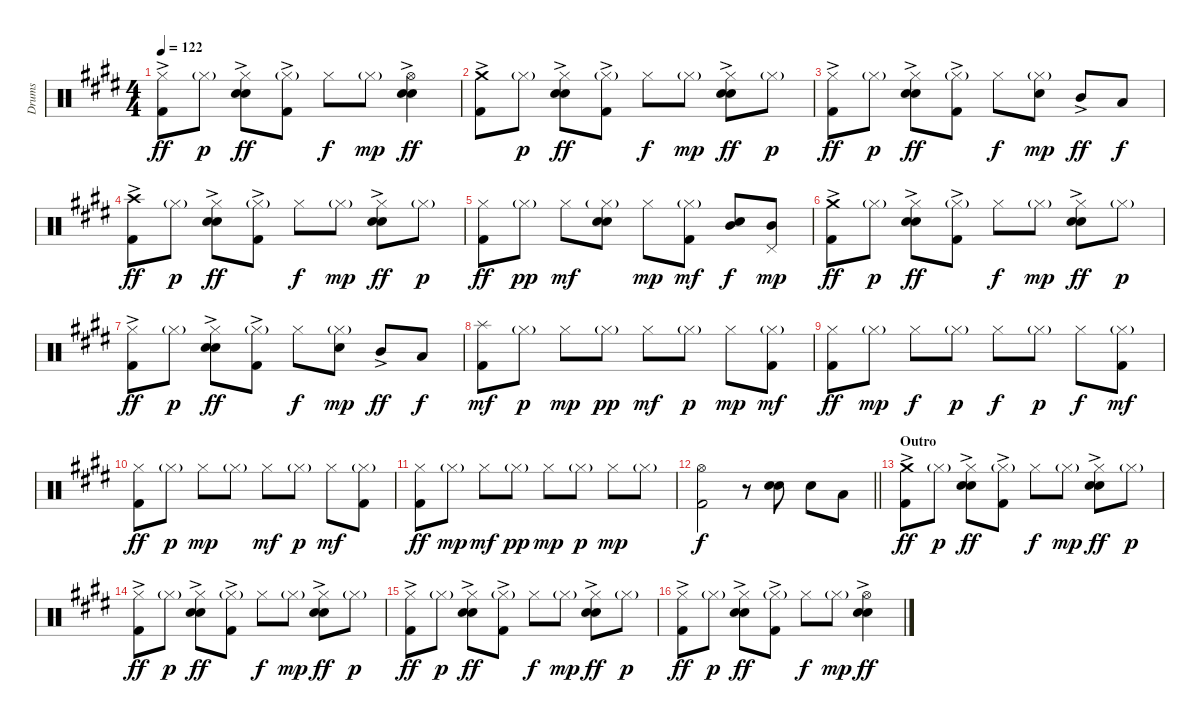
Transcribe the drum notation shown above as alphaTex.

\track ("Drums" "Drums") {instrument percussion}
\staff {score}
\articulation defaults
\ts (4 4)
\tempo 122
\clef neutral
\ks e
("Hi-Hat (closed)" "Kick (hit) 2"{ac}).8{dy ff} "Hi-Hat (closed)"{g}.8{dy p} ("Hi-Hat (closed)" "Electric Snare (hit)"{ac} "Snare (hit) 2").8{dy ff} ("Hi-Hat (closed)"{g} "Kick (hit) 2"{ac}).8 "Hi-Hat (closed)".8{dy f} "Hi-Hat (closed)"{g}.8{dy mp} ("Hi-Hat (open)" "Electric Snare (hit)"{ac} "Snare (hit) 2").4{dy ff} |
("Crash medium (hit)" "Kick (hit) 2"{ac}).8 "Hi-Hat (closed)"{g}.8{dy p} ("Hi-Hat (closed)" "Electric Snare (hit)"{ac} "Snare (hit) 2").8{dy ff} ("Hi-Hat (closed)"{g} "Kick (hit) 2"{ac}).8 "Hi-Hat (closed)".8{dy f} "Hi-Hat (closed)"{g}.8{dy mp} ("Hi-Hat (closed)" "Electric Snare (hit)"{ac} "Snare (hit) 2").8{dy ff} "Hi-Hat (closed)"{g}.8{dy p} |
("Hi-Hat (closed)" "Kick (hit) 2"{ac}).8{dy ff} "Hi-Hat (closed)"{g}.8{dy p} ("Hi-Hat (closed)" "Electric Snare (hit)"{ac} "Snare (hit) 2").8{dy ff} ("Hi-Hat (closed)"{g} "Kick (hit) 2"{ac}).8 "Hi-Hat (closed)".8{dy f} ("Hi-Hat (closed)"{g} "Electric Snare (hit)").8{dy mp} "Mid Tom (hit)"{ac}.8{dy ff} "Low Tom (hit)".8{dy f} |
("Crash high (hit)" "Kick (hit) 2"{ac}).8{dy ff} "Hi-Hat (closed)"{g}.8{dy p} ("Hi-Hat (closed)" "Electric Snare (hit)"{ac} "Snare (hit) 2").8{dy ff} ("Hi-Hat (closed)"{g} "Kick (hit) 2"{ac}).8 "Hi-Hat (closed)".8{dy f} "Hi-Hat (closed)"{g}.8{dy mp} ("Hi-Hat (closed)" "Electric Snare (hit)"{ac} "Snare (hit) 2").8{dy ff} "Hi-Hat (closed)"{g}.8{dy p} |
("Hi-Hat (closed)" "Kick (hit) 2").8{dy ff} "Hi-Hat (closed)"{g}.8{dy pp} "Hi-Hat (closed)".8{dy mf} ("Hi-Hat (closed)"{g} "Electric Snare (hit)" "Snare (hit) 2").8 "Hi-Hat (closed)".8{dy mp} ("Hi-Hat (closed)"{g} "Kick (hit) 2").8{dy mf} ("Electric Snare (hit)" "Mid Tom (hit)").8{dy f} ("Pedal Hi-Hat (hit)" "Mid Tom (hit)").8{dy mp} |
("Crash medium (hit)" "Kick (hit) 2"{ac}).8{dy ff} "Hi-Hat (closed)"{g}.8{dy p} ("Hi-Hat (closed)" "Electric Snare (hit)"{ac} "Snare (hit) 2").8{dy ff} ("Hi-Hat (closed)"{g} "Kick (hit) 2"{ac}).8 "Hi-Hat (closed)".8{dy f} "Hi-Hat (closed)"{g}.8{dy mp} ("Hi-Hat (closed)" "Electric Snare (hit)"{ac} "Snare (hit) 2").8{dy ff} "Hi-Hat (closed)"{g}.8{dy p} |
("Hi-Hat (closed)" "Kick (hit) 2"{ac}).8{dy ff} "Hi-Hat (closed)"{g}.8{dy p} ("Hi-Hat (closed)" "Electric Snare (hit)"{ac} "Snare (hit) 2").8{dy ff} ("Hi-Hat (closed)"{g} "Kick (hit) 2"{ac}).8 "Hi-Hat (closed)".8{dy f} ("Hi-Hat (closed)"{g} "Electric Snare (hit)").8{dy mp} "Mid Tom (hit)"{ac}.8{dy ff} "Low Tom (hit)".8{dy f} |
("Splash (hit)" "Kick (hit) 2").8{dy mf} "Hi-Hat (closed)"{g}.8{dy p} "Hi-Hat (closed)".8{dy mp} "Hi-Hat (closed)"{g}.8{dy pp} "Hi-Hat (closed)".8{dy mf} "Hi-Hat (closed)"{g}.8{dy p} "Hi-Hat (closed)".8{dy mp} ("Hi-Hat (closed)"{g} "Kick (hit) 2").8{dy mf} |
("Hi-Hat (closed)" "Kick (hit) 2").8{dy ff} "Hi-Hat (closed)"{g}.8{dy mp} "Hi-Hat (closed)".8{dy f} "Hi-Hat (closed)"{g}.8{dy p} "Hi-Hat (closed)".8{dy f} "Hi-Hat (closed)"{g}.8{dy p} "Hi-Hat (closed)".8{dy f} ("Hi-Hat (closed)"{g} "Kick (hit) 2").8{dy mf} |
("Hi-Hat (closed)" "Kick (hit) 2").8{dy ff} "Hi-Hat (closed)"{g}.8{dy p} "Hi-Hat (closed)".8{dy mp} "Hi-Hat (closed)"{g}.8 "Hi-Hat (closed)".8{dy mf} "Hi-Hat (closed)"{g}.8{dy p} "Hi-Hat (closed)".8{dy mf} ("Hi-Hat (closed)"{g} "Kick (hit) 2").8 |
("Hi-Hat (closed)" "Kick (hit) 2").8{dy ff} "Hi-Hat (closed)"{g}.8{dy mp} "Hi-Hat (closed)".8{dy mf} "Hi-Hat (closed)"{g}.8{dy pp} "Hi-Hat (closed)".8{dy mp} "Hi-Hat (closed)"{g}.8{dy p} "Hi-Hat (closed)".8{dy mp} "Hi-Hat (closed)"{g}.8 |
\barLineRight lightlight
("Hi-Hat (open)" "Kick (hit) 2").2{dy f} r.8 ("Electric Snare (hit)" "Snare (hit) 2").8 "Electric Snare (hit)".8 "Low Tom (hit)".8 |
\section ("" "Outro")
("Crash medium (hit)" "Kick (hit) 2"{ac}).8{dy ff} "Hi-Hat (closed)"{g}.8{dy p} ("Hi-Hat (closed)" "Electric Snare (hit)"{ac} "Snare (hit) 2").8{dy ff} ("Hi-Hat (closed)"{g} "Kick (hit) 2"{ac}).8 "Hi-Hat (closed)".8{dy f} "Hi-Hat (closed)"{g}.8{dy mp} ("Hi-Hat (closed)" "Electric Snare (hit)"{ac} "Snare (hit) 2").8{dy ff} "Hi-Hat (closed)"{g}.8{dy p} |
("Hi-Hat (closed)" "Kick (hit) 2"{ac}).8{dy ff} "Hi-Hat (closed)"{g}.8{dy p} ("Hi-Hat (closed)" "Electric Snare (hit)"{ac} "Snare (hit) 2").8{dy ff} ("Hi-Hat (closed)"{g} "Kick (hit) 2"{ac}).8 "Hi-Hat (closed)".8{dy f} "Hi-Hat (closed)"{g}.8{dy mp} ("Hi-Hat (closed)" "Electric Snare (hit)"{ac} "Snare (hit) 2").8{dy ff} "Hi-Hat (closed)"{g}.8{dy p} |
("Hi-Hat (closed)" "Kick (hit) 2"{ac}).8{dy ff} "Hi-Hat (closed)"{g}.8{dy p} ("Hi-Hat (closed)" "Electric Snare (hit)"{ac} "Snare (hit) 2").8{dy ff} ("Hi-Hat (closed)"{g} "Kick (hit) 2"{ac}).8 "Hi-Hat (closed)".8{dy f} "Hi-Hat (closed)"{g}.8{dy mp} ("Hi-Hat (closed)" "Electric Snare (hit)"{ac} "Snare (hit) 2").8{dy ff} "Hi-Hat (closed)"{g}.8{dy p} |
("Hi-Hat (closed)" "Kick (hit) 2"{ac}).8{dy ff} "Hi-Hat (closed)"{g}.8{dy p} ("Hi-Hat (closed)" "Electric Snare (hit)"{ac} "Snare (hit) 2").8{dy ff} ("Hi-Hat (closed)"{g} "Kick (hit) 2"{ac}).8 "Hi-Hat (closed)".8{dy f} "Hi-Hat (closed)"{g}.8{dy mp} ("Hi-Hat (open)" "Electric Snare (hit)"{ac} "Snare (hit) 2").4{dy ff}
